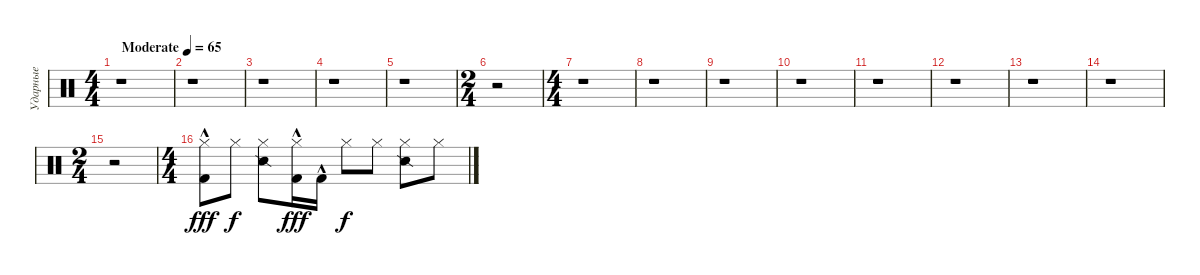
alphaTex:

\track ("Ударные" "Ударные") {instrument percussion}
\staff {score}
\articulation defaults
\ts (4 4)
\tempo (65 "Moderate")
\clef neutral
\ks c
r.1{dy fff} |
r.1 |
r.1 |
r.1 |
r.1 |
\ts (2 4)
r.2 |
\ts (4 4)
r.1 |
r.1 |
r.1 |
r.1 |
r.1 |
r.1 |
r.1 |
r.1 |
\ts (2 4)
r.2 |
\ts (4 4)
("Kick (hit) 2"{hac} "Hi-Hat (closed)").8 "Hi-Hat (closed)".8{dy f} ("Snare (side stick) 2" "Hi-Hat (closed)").8 ("Kick (hit) 2"{hac} "Hi-Hat (closed)").16{dy fff} "Kick (hit) 2"{hac}.16 "Hi-Hat (closed)".8{dy f} "Hi-Hat (closed)".8 ("Snare (side stick) 2" "Hi-Hat (closed)").8 "Hi-Hat (closed)".8
